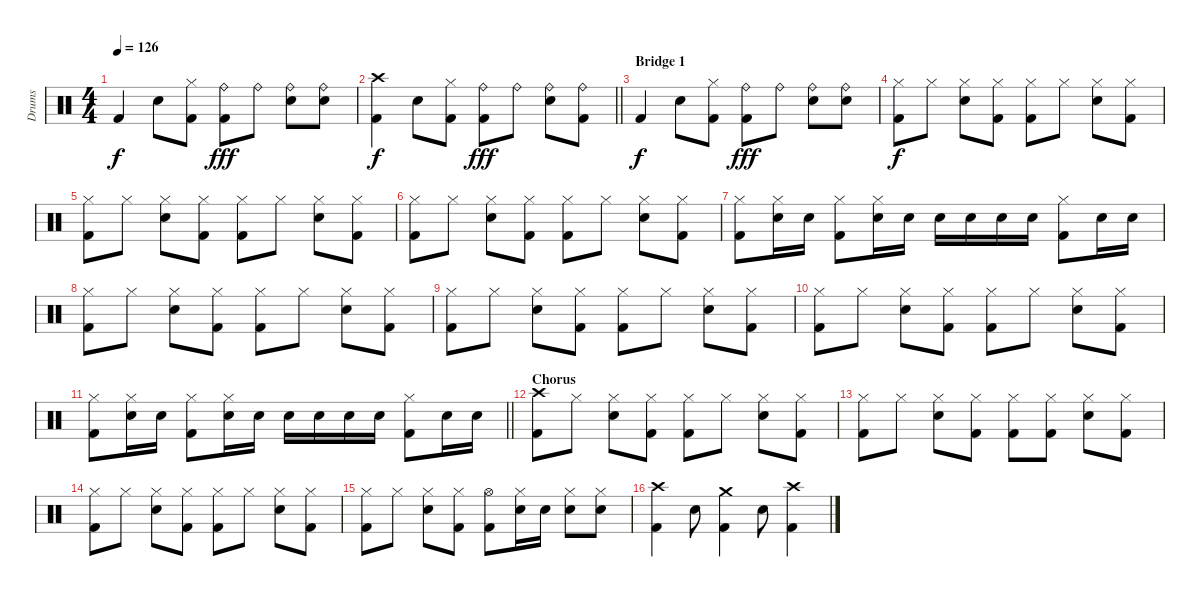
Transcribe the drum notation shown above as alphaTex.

\track ("Drums" "Drums") {instrument percussion}
\staff {score}
\articulation defaults
\ts (4 4)
\tempo 126
\clef neutral
\ks c "Kick (hit) 2".4{dy f} "Snare (hit) 2".8
("Kick (hit) 2" "Hi-Hat (closed)").8 ("Kick (hit) 2" "Ride (bell)").8{dy fff} "Ride (bell)".8 ("Snare (hit) 2" "Ride (bell)").8 ("Snare (hit) 2" "Ride (bell)").8 |
\barLineRight lightlight
("Kick (hit) 2" "Crash high (hit)").4{dy f} "Snare (hit) 2".8 ("Kick (hit) 2" "Hi-Hat (closed)").8 ("Kick (hit) 2" "Ride (bell)").8{dy fff} "Ride (bell)".8 ("Snare (hit) 2" "Ride (bell)").8 ("Kick (hit) 2" "Ride (bell)").8 |
\section ("" "Bridge 1")
"Kick (hit) 2".4{dy f} "Snare (hit) 2".8 ("Kick (hit) 2" "Hi-Hat (closed)").8 ("Kick (hit) 2" "Ride (bell)").8{dy fff} "Ride (bell)".8 ("Snare (hit) 2" "Ride (bell)").8 ("Snare (hit) 2" "Ride (bell)").8 |
("Kick (hit) 2" "Hi-Hat (closed)").8{dy f} "Hi-Hat (closed)".8 ("Snare (hit) 2" "Hi-Hat (closed)").8 ("Kick (hit) 2" "Hi-Hat (closed)").8 ("Kick (hit) 2" "Hi-Hat (closed)").8 "Hi-Hat (closed)".8 ("Snare (hit) 2" "Hi-Hat (closed)").8 ("Kick (hit) 2" "Hi-Hat (closed)").8 |
("Kick (hit) 2" "Hi-Hat (closed)").8 "Hi-Hat (closed)".8 ("Snare (hit) 2" "Hi-Hat (closed)").8 ("Kick (hit) 2" "Hi-Hat (closed)").8 ("Kick (hit) 2" "Hi-Hat (closed)").8 "Hi-Hat (closed)".8 ("Snare (hit) 2" "Hi-Hat (closed)").8 ("Kick (hit) 2" "Hi-Hat (closed)").8 |
("Kick (hit) 2" "Hi-Hat (closed)").8 "Hi-Hat (closed)".8 ("Snare (hit) 2" "Hi-Hat (closed)").8 ("Kick (hit) 2" "Hi-Hat (closed)").8 ("Kick (hit) 2" "Hi-Hat (closed)").8 "Hi-Hat (closed)".8 ("Snare (hit) 2" "Hi-Hat (closed)").8 ("Kick (hit) 2" "Hi-Hat (closed)").8 |
("Kick (hit) 2" "Hi-Hat (closed)").8 ("Snare (hit) 2" "Hi-Hat (closed)").16 "Snare (hit) 2".16 ("Kick (hit) 2" "Hi-Hat (closed)").8 ("Snare (hit) 2" "Hi-Hat (closed)").16 "Snare (hit) 2".16 "Snare (hit) 2".16 "Snare (hit) 2".16 "Snare (hit) 2".16 "Snare (hit) 2".16 ("Kick (hit) 2" "Hi-Hat (closed)").8 "Snare (hit) 2".16 "Snare (hit) 2".16 |
("Kick (hit) 2" "Hi-Hat (closed)").8 "Hi-Hat (closed)".8 ("Snare (hit) 2" "Hi-Hat (closed)").8 ("Kick (hit) 2" "Hi-Hat (closed)").8 ("Kick (hit) 2" "Hi-Hat (closed)").8 "Hi-Hat (closed)".8 ("Snare (hit) 2" "Hi-Hat (closed)").8 ("Kick (hit) 2" "Hi-Hat (closed)").8 |
("Kick (hit) 2" "Hi-Hat (closed)").8 "Hi-Hat (closed)".8 ("Snare (hit) 2" "Hi-Hat (closed)").8 ("Kick (hit) 2" "Hi-Hat (closed)").8 ("Kick (hit) 2" "Hi-Hat (closed)").8 "Hi-Hat (closed)".8 ("Snare (hit) 2" "Hi-Hat (closed)").8 ("Kick (hit) 2" "Hi-Hat (closed)").8 |
("Kick (hit) 2" "Hi-Hat (closed)").8 "Hi-Hat (closed)".8 ("Snare (hit) 2" "Hi-Hat (closed)").8 ("Kick (hit) 2" "Hi-Hat (closed)").8 ("Kick (hit) 2" "Hi-Hat (closed)").8 "Hi-Hat (closed)".8 ("Snare (hit) 2" "Hi-Hat (closed)").8 ("Kick (hit) 2" "Hi-Hat (closed)").8 |
\barLineRight lightlight
("Kick (hit) 2" "Hi-Hat (closed)").8 ("Snare (hit) 2" "Hi-Hat (closed)").16 "Snare (hit) 2".16 ("Kick (hit) 2" "Hi-Hat (closed)").8 ("Snare (hit) 2" "Hi-Hat (closed)").16 "Snare (hit) 2".16 "Snare (hit) 2".16 "Snare (hit) 2".16 "Snare (hit) 2".16 "Snare (hit) 2".16 ("Kick (hit) 2" "Hi-Hat (closed)").8 "Snare (hit) 2".16 "Snare (hit) 2".16 |
\section ("" "Chorus")
("Kick (hit) 2" "Crash high (hit)").8 "Hi-Hat (closed)".8 ("Snare (hit) 2" "Hi-Hat (closed)").8 ("Kick (hit) 2" "Hi-Hat (closed)").8 ("Kick (hit) 2" "Hi-Hat (closed)").8 "Hi-Hat (closed)".8 ("Snare (hit) 2" "Hi-Hat (closed)").8 ("Kick (hit) 2" "Hi-Hat (closed)").8 |
("Kick (hit) 2" "Hi-Hat (closed)").8 "Hi-Hat (closed)".8 ("Snare (hit) 2" "Hi-Hat (closed)").8 ("Kick (hit) 2" "Hi-Hat (closed)").8 ("Kick (hit) 2" "Hi-Hat (closed)").8 ("Kick (hit) 2" "Hi-Hat (closed)").8 ("Snare (hit) 2" "Hi-Hat (closed)").8 ("Kick (hit) 2" "Hi-Hat (closed)").8 |
("Kick (hit) 2" "Hi-Hat (closed)").8 "Hi-Hat (closed)".8 ("Snare (hit) 2" "Hi-Hat (closed)").8 ("Kick (hit) 2" "Hi-Hat (closed)").8 ("Kick (hit) 2" "Hi-Hat (closed)").8 "Hi-Hat (closed)".8 ("Snare (hit) 2" "Hi-Hat (closed)").8 ("Kick (hit) 2" "Hi-Hat (closed)").8 |
("Kick (hit) 2" "Hi-Hat (closed)").8 "Hi-Hat (closed)".8 ("Snare (hit) 2" "Hi-Hat (closed)").8 ("Kick (hit) 2" "Hi-Hat (closed)").8 ("Kick (hit) 2" "Hi-Hat (open)").8 ("Snare (hit) 2" "Hi-Hat (closed)").16 "Snare (hit) 2".16 ("Snare (hit) 2" "Hi-Hat (closed)").8 ("Snare (hit) 2" "Hi-Hat (closed)").8 |
("Kick (hit) 2" "Crash high (hit)").4 "Snare (hit) 2".8 ("Kick (hit) 2" "Crash medium (hit)").4 "Snare (hit) 2".8 ("Kick (hit) 2" "Crash high (hit)").4
